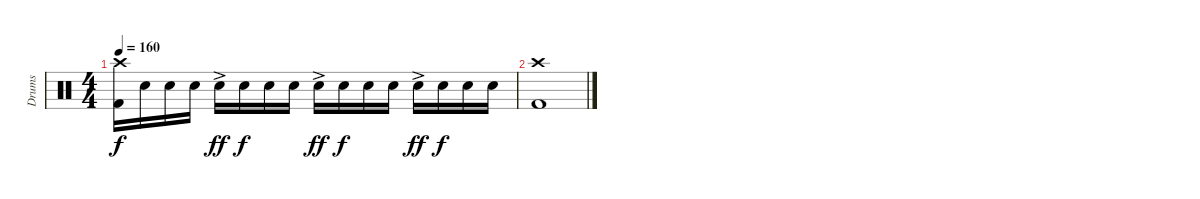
\track ("Drums" "Drums") {instrument percussion}
\staff {score}
\articulation defaults
\ts (4 4)
\tempo 160
\clef neutral
\ks c
("Crash high (hit)" "Kick (hit) 2").16{dy f} "Snare (hit) 2".16 "Snare (hit) 2".16 "Snare (hit) 2".16 "Snare (hit) 2"{ac}.16{dy ff} "Snare (hit) 2".16{dy f} "Snare (hit) 2".16 "Snare (hit) 2".16 "Snare (hit) 2"{ac}.16{dy ff} "Snare (hit) 2".16{dy f} "Snare (hit) 2".16 "Snare (hit) 2".16 "Snare (hit) 2"{ac}.16{dy ff} "Snare (hit) 2".16{dy f} "Snare (hit) 2".16 "Snare (hit) 2".16 |
("Crash high (hit)" "Kick (hit) 2").1
